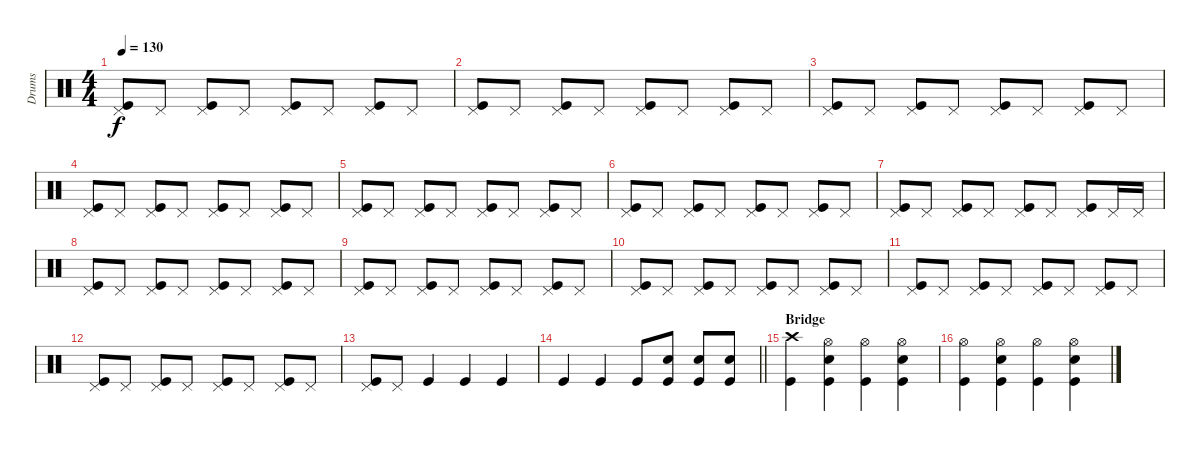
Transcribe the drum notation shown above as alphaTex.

\track ("Drums" "Drums") {instrument percussion}
\staff {score}
\articulation defaults
\ts (4 4)
\tempo 130
\clef neutral
\ks c
("Kick (hit)" "Pedal Hi-Hat (hit)").8{dy f} "Pedal Hi-Hat (hit)".8 ("Kick (hit)" "Pedal Hi-Hat (hit)").8 "Pedal Hi-Hat (hit)".8 ("Kick (hit)" "Pedal Hi-Hat (hit)").8 "Pedal Hi-Hat (hit)".8 ("Kick (hit)" "Pedal Hi-Hat (hit)").8 "Pedal Hi-Hat (hit)".8 |
("Kick (hit)" "Pedal Hi-Hat (hit)").8 "Pedal Hi-Hat (hit)".8 ("Kick (hit)" "Pedal Hi-Hat (hit)").8 "Pedal Hi-Hat (hit)".8 ("Kick (hit)" "Pedal Hi-Hat (hit)").8 "Pedal Hi-Hat (hit)".8 ("Kick (hit)" "Pedal Hi-Hat (hit)").8 "Pedal Hi-Hat (hit)".8 |
("Kick (hit)" "Pedal Hi-Hat (hit)").8 "Pedal Hi-Hat (hit)".8 ("Kick (hit)" "Pedal Hi-Hat (hit)").8 "Pedal Hi-Hat (hit)".8 ("Kick (hit)" "Pedal Hi-Hat (hit)").8 "Pedal Hi-Hat (hit)".8 ("Kick (hit)" "Pedal Hi-Hat (hit)").8 "Pedal Hi-Hat (hit)".8 |
("Kick (hit)" "Pedal Hi-Hat (hit)").8 "Pedal Hi-Hat (hit)".8 ("Kick (hit)" "Pedal Hi-Hat (hit)").8 "Pedal Hi-Hat (hit)".8 ("Kick (hit)" "Pedal Hi-Hat (hit)").8 "Pedal Hi-Hat (hit)".8 ("Kick (hit)" "Pedal Hi-Hat (hit)").8 "Pedal Hi-Hat (hit)".8 |
("Kick (hit)" "Pedal Hi-Hat (hit)").8 "Pedal Hi-Hat (hit)".8 ("Kick (hit)" "Pedal Hi-Hat (hit)").8 "Pedal Hi-Hat (hit)".8 ("Kick (hit)" "Pedal Hi-Hat (hit)").8 "Pedal Hi-Hat (hit)".8 ("Kick (hit)" "Pedal Hi-Hat (hit)").8 "Pedal Hi-Hat (hit)".8 |
("Kick (hit)" "Pedal Hi-Hat (hit)").8 "Pedal Hi-Hat (hit)".8 ("Kick (hit)" "Pedal Hi-Hat (hit)").8 "Pedal Hi-Hat (hit)".8 ("Kick (hit)" "Pedal Hi-Hat (hit)").8 "Pedal Hi-Hat (hit)".8 ("Kick (hit)" "Pedal Hi-Hat (hit)").8 "Pedal Hi-Hat (hit)".8 |
("Kick (hit)" "Pedal Hi-Hat (hit)").8 "Pedal Hi-Hat (hit)".8 ("Kick (hit)" "Pedal Hi-Hat (hit)").8 "Pedal Hi-Hat (hit)".8 ("Kick (hit)" "Pedal Hi-Hat (hit)").8 "Pedal Hi-Hat (hit)".8 ("Kick (hit)" "Pedal Hi-Hat (hit)").8 "Pedal Hi-Hat (hit)".16 "Pedal Hi-Hat (hit)".16 |
("Kick (hit)" "Pedal Hi-Hat (hit)").8 "Pedal Hi-Hat (hit)".8 ("Kick (hit)" "Pedal Hi-Hat (hit)").8 "Pedal Hi-Hat (hit)".8 ("Kick (hit)" "Pedal Hi-Hat (hit)").8 "Pedal Hi-Hat (hit)".8 ("Kick (hit)" "Pedal Hi-Hat (hit)").8 "Pedal Hi-Hat (hit)".8 |
("Kick (hit)" "Pedal Hi-Hat (hit)").8 "Pedal Hi-Hat (hit)".8 ("Kick (hit)" "Pedal Hi-Hat (hit)").8 "Pedal Hi-Hat (hit)".8 ("Kick (hit)" "Pedal Hi-Hat (hit)").8 "Pedal Hi-Hat (hit)".8 ("Kick (hit)" "Pedal Hi-Hat (hit)").8 "Pedal Hi-Hat (hit)".8 |
("Kick (hit)" "Pedal Hi-Hat (hit)").8 "Pedal Hi-Hat (hit)".8 ("Kick (hit)" "Pedal Hi-Hat (hit)").8 "Pedal Hi-Hat (hit)".8 ("Kick (hit)" "Pedal Hi-Hat (hit)").8 "Pedal Hi-Hat (hit)".8 ("Kick (hit)" "Pedal Hi-Hat (hit)").8 "Pedal Hi-Hat (hit)".8 |
("Kick (hit)" "Pedal Hi-Hat (hit)").8 "Pedal Hi-Hat (hit)".8 ("Kick (hit)" "Pedal Hi-Hat (hit)").8 "Pedal Hi-Hat (hit)".8 ("Kick (hit)" "Pedal Hi-Hat (hit)").8 "Pedal Hi-Hat (hit)".8 ("Kick (hit)" "Pedal Hi-Hat (hit)").8 "Pedal Hi-Hat (hit)".8 |
("Kick (hit)" "Pedal Hi-Hat (hit)").8 "Pedal Hi-Hat (hit)".8 ("Kick (hit)" "Pedal Hi-Hat (hit)").8 "Pedal Hi-Hat (hit)".8 ("Kick (hit)" "Pedal Hi-Hat (hit)").8 "Pedal Hi-Hat (hit)".8 ("Kick (hit)" "Pedal Hi-Hat (hit)").8 "Pedal Hi-Hat (hit)".8 |
("Kick (hit)" "Pedal Hi-Hat (hit)").8 "Pedal Hi-Hat (hit)".8 "Kick (hit)".4 "Kick (hit)".4 "Kick (hit)".4 |
\barLineRight lightlight "Kick (hit)".4 "Kick (hit)".4 "Kick (hit)".8
("Kick (hit)" "Snare (hit) 2").8 ("Kick (hit)" "Snare (hit) 2").8 ("Kick (hit)" "Snare (hit) 2").8 |
\section ("" "Bridge")
("Crash high (hit)" "Kick (hit)").4 ("Kick (hit)" "Snare (hit) 2" "Hi-Hat (open)").4 ("Hi-Hat (open)" "Kick (hit)").4 ("Hi-Hat (open)" "Snare (hit) 2" "Kick (hit)").4 |
("Hi-Hat (open)" "Kick (hit)").4 ("Kick (hit)" "Snare (hit) 2" "Hi-Hat (open)").4 ("Hi-Hat (open)" "Kick (hit)").4 ("Hi-Hat (open)" "Snare (hit) 2" "Kick (hit)").4
